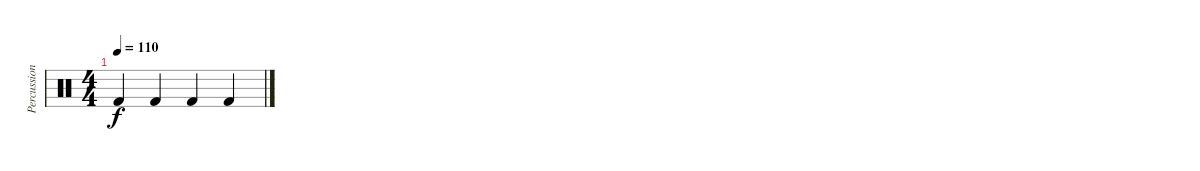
\track ("Percussion" "Percussion") {instrument percussion}
\staff {score}
\articulation defaults
\ts (4 4)
\tempo 110
\clef neutral
\ks c "Kick (hit) 2".4{dy f volume 13} "Kick (hit) 2".4{volume 13} "Kick (hit) 2".4{volume 13} "Kick (hit) 2".4{volume 13}
